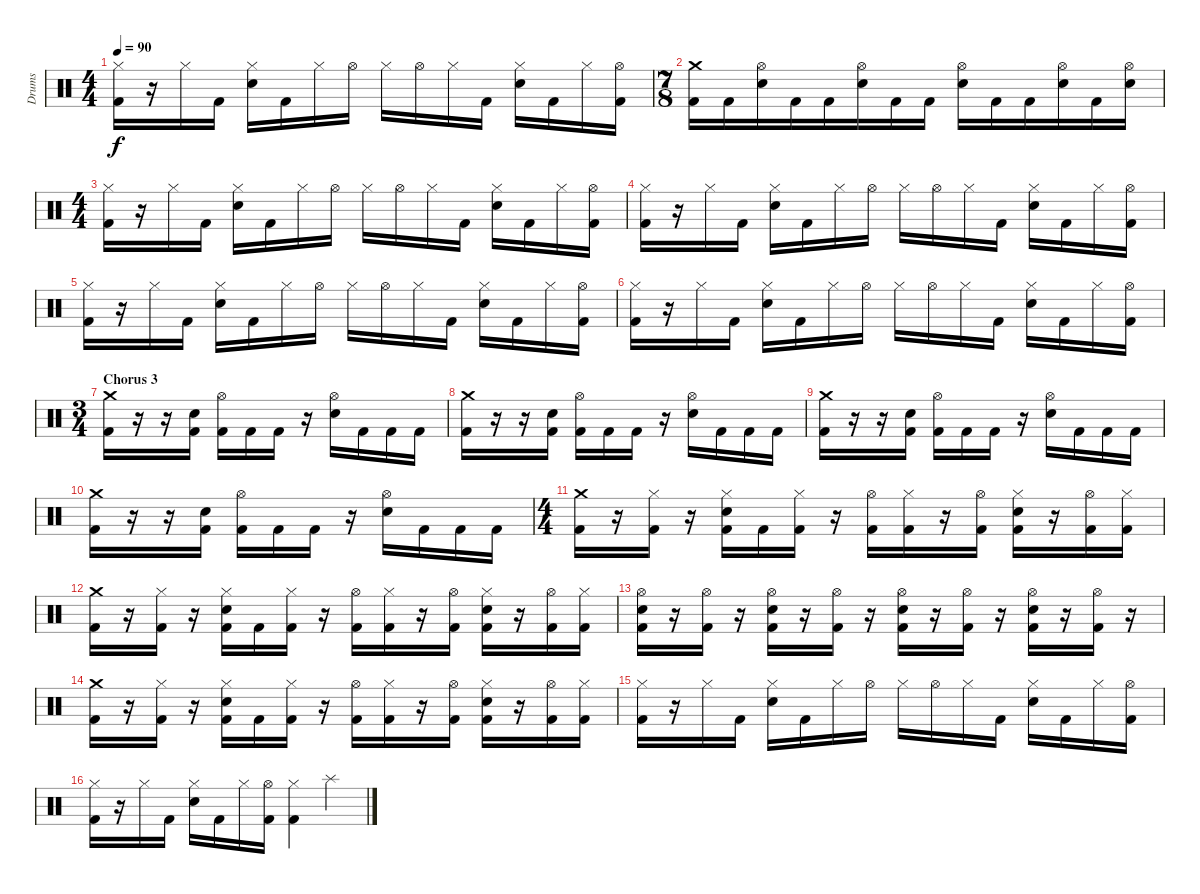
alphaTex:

\track ("Drums" "Drums") {instrument percussion}
\staff {score}
\articulation defaults
\ts (4 4)
\tempo 90
\clef neutral
\ks c
("Hi-Hat (closed)" "Kick (hit) 2").16{dy f} r.16 "Hi-Hat (closed)".16 "Kick (hit) 2".16 ("Hi-Hat (closed)" "Snare (hit) 2").16 "Kick (hit) 2".16 "Hi-Hat (closed)".16 "Hi-Hat (open)".16 "Hi-Hat (closed)".16 "Hi-Hat (open)".16 "Hi-Hat (closed)".16 "Kick (hit) 2".16 ("Hi-Hat (closed)" "Snare (hit) 2").16 "Kick (hit) 2".16 "Hi-Hat (closed)".16 ("Hi-Hat (open)" "Kick (hit) 2").16 |
\ts (7 8)
("Crash medium (hit)" "Kick (hit) 2").16 "Kick (hit) 2".16 ("Hi-Hat (open)" "Snare (hit) 2").16 "Kick (hit) 2".16 "Kick (hit) 2".16 ("Hi-Hat (open)" "Snare (hit) 2").16 "Kick (hit) 2".16 "Kick (hit) 2".16 ("Hi-Hat (open)" "Snare (hit) 2").16 "Kick (hit) 2".16 "Kick (hit) 2".16 ("Hi-Hat (open)" "Snare (hit) 2").16 "Kick (hit) 2".16 ("Hi-Hat (open)" "Snare (hit) 2").16 |
\ts (4 4)
("Hi-Hat (closed)" "Kick (hit) 2").16 r.16 "Hi-Hat (closed)".16 "Kick (hit) 2".16 ("Hi-Hat (closed)" "Snare (hit) 2").16 "Kick (hit) 2".16 "Hi-Hat (closed)".16 "Hi-Hat (open)".16 "Hi-Hat (closed)".16 "Hi-Hat (open)".16 "Hi-Hat (closed)".16 "Kick (hit) 2".16 ("Hi-Hat (closed)" "Snare (hit) 2").16 "Kick (hit) 2".16 "Hi-Hat (closed)".16 ("Hi-Hat (open)" "Kick (hit) 2").16 |
("Hi-Hat (closed)" "Kick (hit) 2").16 r.16 "Hi-Hat (closed)".16 "Kick (hit) 2".16 ("Hi-Hat (closed)" "Snare (hit) 2").16 "Kick (hit) 2".16 "Hi-Hat (closed)".16 "Hi-Hat (open)".16 "Hi-Hat (closed)".16 "Hi-Hat (open)".16 "Hi-Hat (closed)".16 "Kick (hit) 2".16 ("Hi-Hat (closed)" "Snare (hit) 2").16 "Kick (hit) 2".16 "Hi-Hat (closed)".16 ("Hi-Hat (open)" "Kick (hit) 2").16 |
("Hi-Hat (closed)" "Kick (hit) 2").16 r.16 "Hi-Hat (closed)".16 "Kick (hit) 2".16 ("Hi-Hat (closed)" "Snare (hit) 2").16 "Kick (hit) 2".16 "Hi-Hat (closed)".16 "Hi-Hat (open)".16 "Hi-Hat (closed)".16 "Hi-Hat (open)".16 "Hi-Hat (closed)".16 "Kick (hit) 2".16 ("Hi-Hat (closed)" "Snare (hit) 2").16 "Kick (hit) 2".16 "Hi-Hat (closed)".16 ("Hi-Hat (open)" "Kick (hit) 2").16 |
("Hi-Hat (closed)" "Kick (hit) 2").16 r.16 "Hi-Hat (closed)".16 "Kick (hit) 2".16 ("Hi-Hat (closed)" "Snare (hit) 2").16 "Kick (hit) 2".16 "Hi-Hat (closed)".16 "Hi-Hat (open)".16 "Hi-Hat (closed)".16 "Hi-Hat (open)".16 "Hi-Hat (closed)".16 "Kick (hit) 2".16 ("Hi-Hat (closed)" "Snare (hit) 2").16 "Kick (hit) 2".16 "Hi-Hat (closed)".16 ("Hi-Hat (open)" "Kick (hit) 2").16 |
\ts (3 4)
\section ("" "Chorus 3")
("Crash medium (hit)" "Kick (hit) 2").16 r.16 r.16 ("Snare (hit) 2" "Kick (hit) 2").16 ("Hi-Hat (open)" "Kick (hit) 2").16 "Kick (hit) 2".16 "Kick (hit) 2".16 r.16 ("Hi-Hat (open)" "Snare (hit) 2").16 "Kick (hit) 2".16 "Kick (hit) 2".16 "Kick (hit) 2".16 |
("Crash medium (hit)" "Kick (hit) 2").16 r.16 r.16 ("Snare (hit) 2" "Kick (hit) 2").16 ("Hi-Hat (open)" "Kick (hit) 2").16 "Kick (hit) 2".16 "Kick (hit) 2".16 r.16 ("Hi-Hat (open)" "Snare (hit) 2").16 "Kick (hit) 2".16 "Kick (hit) 2".16 "Kick (hit) 2".16 |
("Crash medium (hit)" "Kick (hit) 2").16 r.16 r.16 ("Snare (hit) 2" "Kick (hit) 2").16 ("Hi-Hat (open)" "Kick (hit) 2").16 "Kick (hit) 2".16 "Kick (hit) 2".16 r.16 ("Hi-Hat (open)" "Snare (hit) 2").16 "Kick (hit) 2".16 "Kick (hit) 2".16 "Kick (hit) 2".16 |
("Crash medium (hit)" "Kick (hit) 2").16 r.16 r.16 ("Snare (hit) 2" "Kick (hit) 2").16 ("Hi-Hat (open)" "Kick (hit) 2").16 "Kick (hit) 2".16 "Kick (hit) 2".16 r.16 ("Hi-Hat (open)" "Snare (hit) 2").16 "Kick (hit) 2".16 "Kick (hit) 2".16 "Kick (hit) 2".16 |
\ts (4 4)
("Crash medium (hit)" "Kick (hit) 2").16 r.16 ("Hi-Hat (closed)" "Kick (hit) 2").16 r.16 ("Hi-Hat (closed)" "Snare (hit) 2" "Kick (hit) 2").16 "Kick (hit) 2".16 ("Hi-Hat (closed)" "Kick (hit) 2").16 r.16 ("Hi-Hat (open)" "Kick (hit) 2").16 ("Hi-Hat (closed)" "Kick (hit) 2").16 r.16 ("Hi-Hat (open)" "Kick (hit) 2").16 ("Hi-Hat (closed)" "Snare (hit) 2" "Kick (hit) 2").16 r.16 ("Hi-Hat (open)" "Kick (hit) 2").16 ("Hi-Hat (closed)" "Kick (hit) 2").16 |
("Crash medium (hit)" "Kick (hit) 2").16 r.16 ("Hi-Hat (closed)" "Kick (hit) 2").16 r.16 ("Hi-Hat (closed)" "Snare (hit) 2" "Kick (hit) 2").16 "Kick (hit) 2".16 ("Hi-Hat (closed)" "Kick (hit) 2").16 r.16 ("Hi-Hat (open)" "Kick (hit) 2").16 ("Hi-Hat (closed)" "Kick (hit) 2").16 r.16 ("Hi-Hat (open)" "Kick (hit) 2").16 ("Hi-Hat (closed)" "Snare (hit) 2" "Kick (hit) 2").16 r.16 ("Hi-Hat (open)" "Kick (hit) 2").16 ("Hi-Hat (closed)" "Kick (hit) 2").16 |
("Hi-Hat (open)" "Snare (hit) 2" "Kick (hit) 2").16 r.16 ("Hi-Hat (open)" "Kick (hit) 2").16 r.16 ("Hi-Hat (open)" "Snare (hit) 2" "Kick (hit) 2").16 r.16 ("Hi-Hat (open)" "Kick (hit) 2").16 r.16 ("Hi-Hat (open)" "Snare (hit) 2" "Kick (hit) 2").16 r.16 ("Hi-Hat (open)" "Kick (hit) 2").16 r.16 ("Hi-Hat (open)" "Snare (hit) 2" "Kick (hit) 2").16 r.16 ("Hi-Hat (open)" "Kick (hit) 2").16 r.16 |
("Crash medium (hit)" "Kick (hit) 2").16 r.16 ("Hi-Hat (closed)" "Kick (hit) 2").16 r.16 ("Hi-Hat (closed)" "Snare (hit) 2" "Kick (hit) 2").16 "Kick (hit) 2".16 ("Hi-Hat (closed)" "Kick (hit) 2").16 r.16 ("Hi-Hat (open)" "Kick (hit) 2").16 ("Hi-Hat (closed)" "Kick (hit) 2").16 r.16 ("Hi-Hat (open)" "Kick (hit) 2").16 ("Hi-Hat (closed)" "Snare (hit) 2" "Kick (hit) 2").16 r.16 ("Hi-Hat (open)" "Kick (hit) 2").16 ("Hi-Hat (closed)" "Kick (hit) 2").16 |
("Hi-Hat (closed)" "Kick (hit) 2").16 r.16 "Hi-Hat (closed)".16 "Kick (hit) 2".16 ("Hi-Hat (closed)" "Snare (hit) 2").16 "Kick (hit) 2".16 "Hi-Hat (closed)".16 "Hi-Hat (open)".16 "Hi-Hat (closed)".16 "Hi-Hat (open)".16 "Hi-Hat (closed)".16 "Kick (hit) 2".16 ("Hi-Hat (closed)" "Snare (hit) 2").16 "Kick (hit) 2".16 "Hi-Hat (closed)".16 ("Hi-Hat (open)" "Kick (hit) 2").16 |
("Hi-Hat (closed)" "Kick (hit) 2").16 r.16 "Hi-Hat (closed)".16 "Kick (hit) 2".16 ("Hi-Hat (closed)" "Snare (hit) 2").16 "Kick (hit) 2".16 "Hi-Hat (closed)".16 ("Hi-Hat (open)" "Kick (hit) 2").16 ("Hi-Hat (closed)" "Kick (hit) 2").4 "Splash (hit)".4
